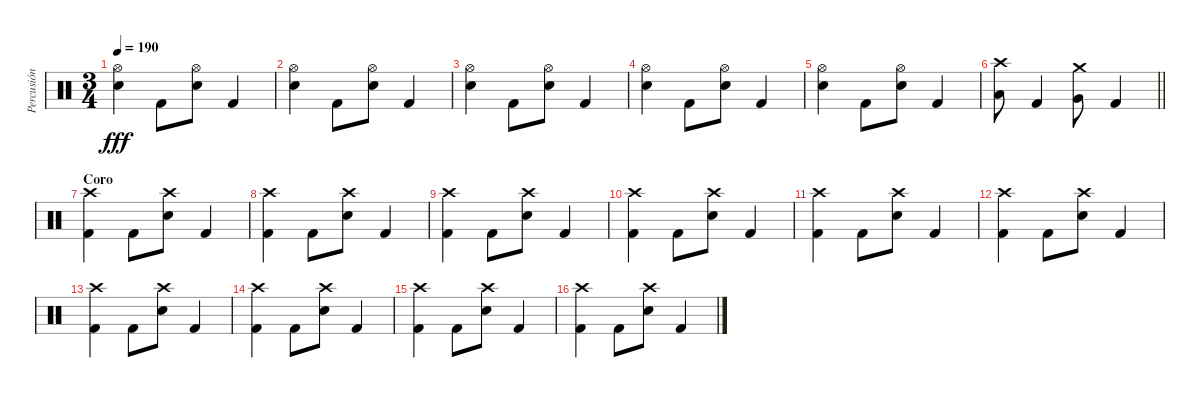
\track ("Percusión" "Percusión") {instrument percussion}
\staff {score}
\articulation defaults
\ts (3 4)
\tempo 190
\clef neutral
\ks c
("Hi-Hat (open)" "Electric Snare (hit)").4{dy fff} "Kick (hit) 2".8 ("Hi-Hat (open)" "Electric Snare (hit)").8 "Kick (hit) 2".4 |
("Hi-Hat (open)" "Electric Snare (hit)").4 "Kick (hit) 2".8 ("Hi-Hat (open)" "Electric Snare (hit)").8 "Kick (hit) 2".4 |
("Hi-Hat (open)" "Electric Snare (hit)").4 "Kick (hit) 2".8 ("Hi-Hat (open)" "Electric Snare (hit)").8 "Kick (hit) 2".4 |
("Hi-Hat (open)" "Electric Snare (hit)").4 "Kick (hit) 2".8 ("Hi-Hat (open)" "Electric Snare (hit)").8 "Kick (hit) 2".4 |
("Hi-Hat (open)" "Electric Snare (hit)").4 "Kick (hit) 2".8 ("Hi-Hat (open)" "Electric Snare (hit)").8 "Kick (hit) 2".4 |
\barLineRight lightlight
("Crash high (hit)" "Low Tom (hit)").8 "Kick (hit) 2".4 ("Crash medium (hit)" "Very Low Tom (hit)").8 "Kick (hit) 2".4 |
\section ("" "Coro")
("Crash high (hit)" "Kick (hit) 2").4 "Kick (hit) 2".8 ("Crash high (hit)" "Electric Snare (hit)").8 "Kick (hit) 2".4 |
("Crash high (hit)" "Kick (hit) 2").4 "Kick (hit) 2".8 ("Crash high (hit)" "Electric Snare (hit)").8 "Kick (hit) 2".4 |
("Crash high (hit)" "Kick (hit) 2").4 "Kick (hit) 2".8 ("Crash high (hit)" "Electric Snare (hit)").8 "Kick (hit) 2".4 |
("Crash high (hit)" "Kick (hit) 2").4 "Kick (hit) 2".8 ("Crash high (hit)" "Electric Snare (hit)").8 "Kick (hit) 2".4 |
("Crash high (hit)" "Kick (hit) 2").4 "Kick (hit) 2".8 ("Crash high (hit)" "Electric Snare (hit)").8 "Kick (hit) 2".4 |
("Crash high (hit)" "Kick (hit) 2").4 "Kick (hit) 2".8 ("Crash high (hit)" "Electric Snare (hit)").8 "Kick (hit) 2".4 |
("Crash high (hit)" "Kick (hit) 2").4 "Kick (hit) 2".8 ("Crash high (hit)" "Electric Snare (hit)").8 "Kick (hit) 2".4 |
("Crash high (hit)" "Kick (hit) 2").4 "Kick (hit) 2".8 ("Crash high (hit)" "Electric Snare (hit)").8 "Kick (hit) 2".4 |
("Crash high (hit)" "Kick (hit) 2").4 "Kick (hit) 2".8 ("Crash high (hit)" "Electric Snare (hit)").8 "Kick (hit) 2".4 |
("Crash high (hit)" "Kick (hit) 2").4 "Kick (hit) 2".8 ("Crash high (hit)" "Electric Snare (hit)").8 "Kick (hit) 2".4
